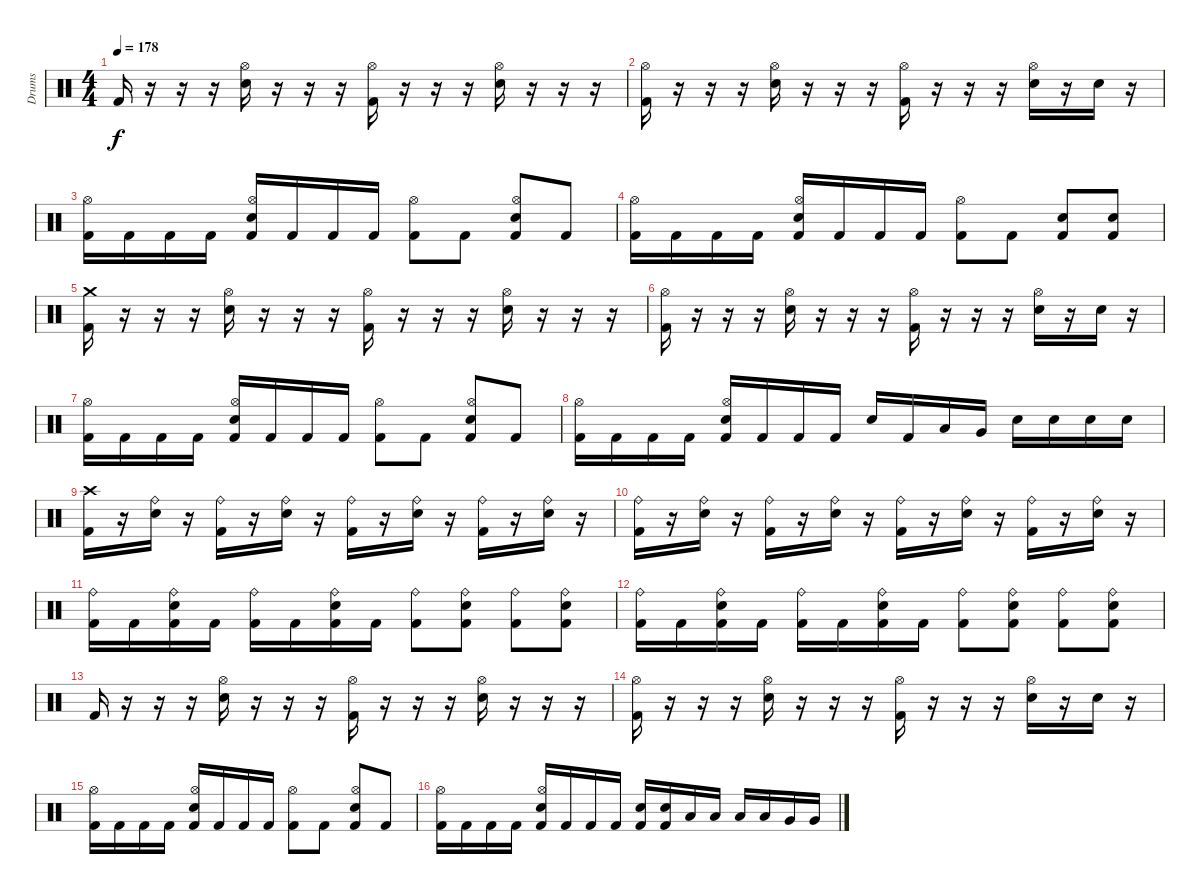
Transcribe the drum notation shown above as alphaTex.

\track ("Drums" "Drums") {instrument percussion}
\staff {score}
\articulation defaults
\ts (4 4)
\tempo 178
\clef neutral
\ks c "Kick (hit) 2".16{dy f}
r.16 r.16 r.16 ("Hi-Hat (open)" "Electric Snare (hit)").16 r.16 r.16 r.16 ("Hi-Hat (open)" "Kick (hit) 2").16 r.16 r.16 r.16 ("Hi-Hat (open)" "Electric Snare (hit)").16 r.16 r.16 r.16 |
("Hi-Hat (open)" "Kick (hit) 2").16 r.16 r.16 r.16 ("Hi-Hat (open)" "Electric Snare (hit)").16 r.16 r.16 r.16 ("Hi-Hat (open)" "Kick (hit) 2").16 r.16 r.16 r.16 ("Hi-Hat (open)" "Electric Snare (hit)").16 r.16 "Electric Snare (hit)".16 r.16 |
("Hi-Hat (open)" "Kick (hit) 2").16 "Kick (hit) 2".16 "Kick (hit) 2".16 "Kick (hit) 2".16 ("Hi-Hat (open)" "Electric Snare (hit)" "Kick (hit) 2").16 "Kick (hit) 2".16 "Kick (hit) 2".16 "Kick (hit) 2".16 ("Hi-Hat (open)" "Kick (hit) 2").8 "Kick (hit) 2".8 ("Hi-Hat (open)" "Electric Snare (hit)" "Kick (hit) 2").8 "Kick (hit) 2".8 |
("Hi-Hat (open)" "Kick (hit) 2").16 "Kick (hit) 2".16 "Kick (hit) 2".16 "Kick (hit) 2".16 ("Hi-Hat (open)" "Electric Snare (hit)" "Kick (hit) 2").16 "Kick (hit) 2".16 "Kick (hit) 2".16 "Kick (hit) 2".16 ("Hi-Hat (open)" "Kick (hit) 2").8 "Kick (hit) 2".8 ("Electric Snare (hit)" "Kick (hit) 2").8 ("Electric Snare (hit)" "Kick (hit) 2").8 |
("Crash medium (hit)" "Kick (hit) 2").16 r.16 r.16 r.16 ("Hi-Hat (open)" "Electric Snare (hit)").16 r.16 r.16 r.16 ("Hi-Hat (open)" "Kick (hit) 2").16 r.16 r.16 r.16 ("Hi-Hat (open)" "Electric Snare (hit)").16 r.16 r.16 r.16 |
("Hi-Hat (open)" "Kick (hit) 2").16 r.16 r.16 r.16 ("Hi-Hat (open)" "Electric Snare (hit)").16 r.16 r.16 r.16 ("Hi-Hat (open)" "Kick (hit) 2").16 r.16 r.16 r.16 ("Hi-Hat (open)" "Electric Snare (hit)").16 r.16 "Electric Snare (hit)".16 r.16 |
("Hi-Hat (open)" "Kick (hit) 2").16 "Kick (hit) 2".16 "Kick (hit) 2".16 "Kick (hit) 2".16 ("Hi-Hat (open)" "Electric Snare (hit)" "Kick (hit) 2").16 "Kick (hit) 2".16 "Kick (hit) 2".16 "Kick (hit) 2".16 ("Hi-Hat (open)" "Kick (hit) 2").8 "Kick (hit) 2".8 ("Hi-Hat (open)" "Electric Snare (hit)" "Kick (hit) 2").8 "Kick (hit) 2".8 |
("Hi-Hat (open)" "Kick (hit) 2").16 "Kick (hit) 2".16 "Kick (hit) 2".16 "Kick (hit) 2".16 ("Hi-Hat (open)" "Electric Snare (hit)" "Kick (hit) 2").16 "Kick (hit) 2".16 "Kick (hit) 2".16 "Kick (hit) 2".16 "Electric Snare (hit)".16 "Kick (hit) 2".16 "Low Tom (hit)".16 "Very Low Tom (hit)".16 "Electric Snare (hit)".16 "Electric Snare (hit)".16 "Electric Snare (hit)".16 "Electric Snare (hit)".16 |
("Crash high (hit)" "Kick (hit) 2").16 r.16 ("Ride (bell)" "Electric Snare (hit)").16 r.16 ("Ride (bell)" "Kick (hit) 2").16 r.16 ("Ride (bell)" "Electric Snare (hit)").16 r.16 ("Ride (bell)" "Kick (hit) 2").16 r.16 ("Ride (bell)" "Electric Snare (hit)").16 r.16 ("Ride (bell)" "Kick (hit) 2").16 r.16 ("Ride (bell)" "Electric Snare (hit)").16 r.16 |
("Ride (bell)" "Kick (hit) 2").16 r.16 ("Ride (bell)" "Electric Snare (hit)").16 r.16 ("Ride (bell)" "Kick (hit) 2").16 r.16 ("Ride (bell)" "Electric Snare (hit)").16 r.16 ("Ride (bell)" "Kick (hit) 2").16 r.16 ("Ride (bell)" "Electric Snare (hit)").16 r.16 ("Ride (bell)" "Kick (hit) 2").16 r.16 ("Ride (bell)" "Electric Snare (hit)").16 r.16 |
("Ride (bell)" "Kick (hit) 2").16 "Kick (hit) 2".16 ("Ride (bell)" "Electric Snare (hit)" "Kick (hit) 2").16 "Kick (hit) 2".16 ("Ride (bell)" "Kick (hit) 2").16 "Kick (hit) 2".16 ("Ride (bell)" "Electric Snare (hit)" "Kick (hit) 2").16 "Kick (hit) 2".16 ("Ride (bell)" "Kick (hit) 2").8 ("Ride (bell)" "Electric Snare (hit)" "Kick (hit) 2").8 ("Ride (bell)" "Kick (hit) 2").8 ("Ride (bell)" "Electric Snare (hit)" "Kick (hit) 2").8 |
("Ride (bell)" "Kick (hit) 2").16 "Kick (hit) 2".16 ("Ride (bell)" "Electric Snare (hit)" "Kick (hit) 2").16 "Kick (hit) 2".16 ("Ride (bell)" "Kick (hit) 2").16 "Kick (hit) 2".16 ("Ride (bell)" "Electric Snare (hit)" "Kick (hit) 2").16 "Kick (hit) 2".16 ("Ride (bell)" "Kick (hit) 2").8 ("Ride (bell)" "Electric Snare (hit)" "Kick (hit) 2").8 ("Ride (bell)" "Kick (hit) 2").8 ("Ride (bell)" "Electric Snare (hit)" "Kick (hit) 2").8 |
"Kick (hit) 2".16 r.16 r.16 r.16 ("Hi-Hat (open)" "Electric Snare (hit)").16 r.16 r.16 r.16 ("Hi-Hat (open)" "Kick (hit) 2").16 r.16 r.16 r.16 ("Hi-Hat (open)" "Electric Snare (hit)").16 r.16 r.16 r.16 |
("Hi-Hat (open)" "Kick (hit) 2").16 r.16 r.16 r.16 ("Hi-Hat (open)" "Electric Snare (hit)").16 r.16 r.16 r.16 ("Hi-Hat (open)" "Kick (hit) 2").16 r.16 r.16 r.16 ("Hi-Hat (open)" "Electric Snare (hit)").16 r.16 "Electric Snare (hit)".16 r.16 |
("Hi-Hat (open)" "Kick (hit) 2").16 "Kick (hit) 2".16 "Kick (hit) 2".16 "Kick (hit) 2".16 ("Hi-Hat (open)" "Electric Snare (hit)" "Kick (hit) 2").16 "Kick (hit) 2".16 "Kick (hit) 2".16 "Kick (hit) 2".16 ("Hi-Hat (open)" "Kick (hit) 2").8 "Kick (hit) 2".8 ("Hi-Hat (open)" "Electric Snare (hit)" "Kick (hit) 2").8 "Kick (hit) 2".8 |
("Hi-Hat (open)" "Kick (hit) 2").16 "Kick (hit) 2".16 "Kick (hit) 2".16 "Kick (hit) 2".16 ("Hi-Hat (open)" "Electric Snare (hit)" "Kick (hit) 2").16 "Kick (hit) 2".16 "Kick (hit) 2".16 "Kick (hit) 2".16 ("Electric Snare (hit)" "Kick (hit) 2").16 ("Electric Snare (hit)" "Kick (hit) 2").16 "Low Tom (hit)".16 "Low Tom (hit)".16 "Low Tom (hit)".16 "Low Tom (hit)".16 "Very Low Tom (hit)".16 "Very Low Tom (hit)".16
